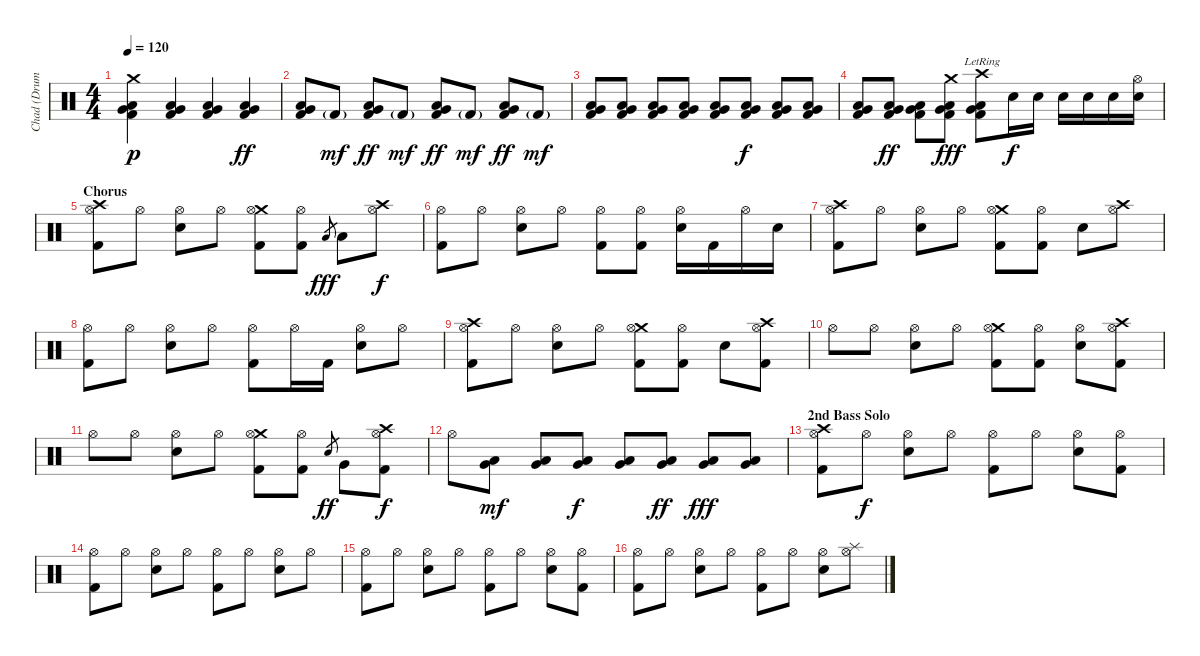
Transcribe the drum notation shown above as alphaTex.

\track ("Chad (Drums)" "Chad (Drum") {instrument percussion}
\staff {score}
\articulation defaults
\ts (4 4)
\tempo 120
\clef neutral
\ks c
("Crash medium (hit)" "Very Low Tom (hit)" "Low Floor Tom (hit)" "Kick (hit) 2").4{dy p} ("Very Low Tom (hit)" "Low Floor Tom (hit)" "Kick (hit) 2").4 ("Very Low Tom (hit)" "Low Floor Tom (hit)" "Kick (hit) 2").4 ("Very Low Tom (hit)" "Low Floor Tom (hit)" "Kick (hit) 2").4{dy ff} |
("Very Low Tom (hit)" "Low Floor Tom (hit)" "Kick (hit) 2").8 "Kick (hit) 2"{g}.8{dy mf} ("Very Low Tom (hit)" "Low Floor Tom (hit)" "Kick (hit) 2").8{dy ff} "Kick (hit) 2"{g}.8{dy mf} ("Very Low Tom (hit)" "Low Floor Tom (hit)" "Kick (hit) 2").8{dy ff} "Kick (hit) 2"{g}.8{dy mf} ("Very Low Tom (hit)" "Low Floor Tom (hit)" "Kick (hit) 2").8{dy ff} "Kick (hit) 2"{g}.8{dy mf} |
("Very Low Tom (hit)" "Low Floor Tom (hit)" "Kick (hit) 2").8 ("Very Low Tom (hit)" "Low Floor Tom (hit)" "Kick (hit) 2").8 ("Very Low Tom (hit)" "Low Floor Tom (hit)" "Kick (hit) 2").8 ("Very Low Tom (hit)" "Low Floor Tom (hit)" "Kick (hit) 2").8 ("Very Low Tom (hit)" "Low Floor Tom (hit)" "Kick (hit) 2").8 ("Very Low Tom (hit)" "Low Floor Tom (hit)" "Kick (hit) 2").8{dy f} ("Very Low Tom (hit)" "Low Floor Tom (hit)" "Kick (hit) 2").8 ("Very Low Tom (hit)" "Low Floor Tom (hit)" "Kick (hit) 2").8 |
("Very Low Tom (hit)" "Low Floor Tom (hit)" "Kick (hit) 2").8 ("Very Low Tom (hit)" "Low Floor Tom (hit)" "Kick (hit) 2").8{dy ff} ("Very Low Tom (hit)" "Low Floor Tom (hit)" "Kick (hit) 2").8 ("Crash medium (hit)" "Very Low Tom (hit)" "Low Floor Tom (hit)" "Kick (hit) 2").8{dy fff} ("Crash high (hit)"{lr} "Very Low Tom (hit)" "Low Floor Tom (hit)" "Kick (hit) 2").8 "Snare (hit) 2".16{dy f} "Snare (hit) 2".16 "Snare (hit) 2".16 "Snare (hit) 2".16 "Snare (hit) 2".16 ("Hi-Hat (open)" "Snare (hit) 2").16 |
\section ("" "Chorus")
("Crash high (hit)" "Hi-Hat (open)" "Kick (hit) 2").8 "Hi-Hat (open)".8 ("Hi-Hat (open)" "Snare (hit) 2").8 "Hi-Hat (open)".8 ("Crash medium (hit)" "Hi-Hat (open)" "Kick (hit) 2").8 ("Hi-Hat (open)" "Kick (hit) 2").8 "Low Floor Tom (hit)".8{gr dy fff} "Low Floor Tom (hit)".8 ("Crash high (hit)" "Hi-Hat (open)").8{dy f} |
("Hi-Hat (open)" "Kick (hit) 2").8 "Hi-Hat (open)".8 ("Hi-Hat (open)" "Snare (hit) 2").8 "Hi-Hat (open)".8 ("Hi-Hat (open)" "Kick (hit) 2").8 ("Hi-Hat (open)" "Kick (hit) 2").8 ("Hi-Hat (open)" "Snare (hit) 2").16 "Kick (hit) 2".16 "Hi-Hat (open)".16 "Snare (hit) 2".16 |
("Crash high (hit)" "Hi-Hat (open)" "Kick (hit) 2").8 "Hi-Hat (open)".8 ("Hi-Hat (open)" "Snare (hit) 2").8 "Hi-Hat (open)".8 ("Crash medium (hit)" "Hi-Hat (open)" "Kick (hit) 2").8 ("Hi-Hat (open)" "Kick (hit) 2").8 "Snare (hit) 2".8 ("Crash high (hit)" "Hi-Hat (open)").8 |
("Hi-Hat (open)" "Kick (hit) 2").8 "Hi-Hat (open)".8 ("Hi-Hat (open)" "Snare (hit) 2").8 "Hi-Hat (open)".8 ("Hi-Hat (open)" "Kick (hit) 2").8 "Hi-Hat (open)".16 "Kick (hit) 2".16 ("Hi-Hat (open)" "Snare (hit) 2").8 "Hi-Hat (open)".8 |
("Crash high (hit)" "Hi-Hat (open)" "Kick (hit) 2").8 "Hi-Hat (open)".8 ("Hi-Hat (open)" "Snare (hit) 2").8 "Hi-Hat (open)".8 ("Crash medium (hit)" "Hi-Hat (open)" "Kick (hit) 2").8 ("Hi-Hat (open)" "Kick (hit) 2").8 "Snare (hit) 2".8 ("Crash high (hit)" "Hi-Hat (open)" "Kick (hit) 2").8 |
"Hi-Hat (open)".8 "Hi-Hat (open)".8 ("Hi-Hat (open)" "Snare (hit) 2").8 "Hi-Hat (open)".8 ("Crash medium (hit)" "Hi-Hat (open)" "Kick (hit) 2").8 ("Hi-Hat (open)" "Kick (hit) 2").8 ("Hi-Hat (open)" "Snare (hit) 2").8 ("Crash high (hit)" "Hi-Hat (open)" "Kick (hit) 2").8 |
"Hi-Hat (open)".8 "Hi-Hat (open)".8 ("Hi-Hat (open)" "Snare (hit) 2").8 "Hi-Hat (open)".8 ("Crash medium (hit)" "Hi-Hat (open)" "Kick (hit) 2").8 ("Hi-Hat (open)" "Kick (hit) 2").8 "Snare (hit) 2".8{gr dy ff} "Very Low Tom (hit)".8 ("Crash high (hit)" "Hi-Hat (open)" "Kick (hit) 2").8{dy f} |
"Hi-Hat (open)".8 ("Low Floor Tom (hit)" "Very Low Tom (hit)").8{dy mf} ("Low Floor Tom (hit)" "Very Low Tom (hit)").8 ("Low Floor Tom (hit)" "Very Low Tom (hit)").8{dy f} ("Low Floor Tom (hit)" "Very Low Tom (hit)").8 ("Low Floor Tom (hit)" "Very Low Tom (hit)").8{dy ff} ("Low Floor Tom (hit)" "Very Low Tom (hit)").8{dy fff} ("Low Floor Tom (hit)" "Very Low Tom (hit)").8 |
\section ("" "2nd Bass Solo")
("Crash high (hit)" "Hi-Hat (open)" "Kick (hit) 2").8 "Hi-Hat (open)".8{dy f} ("Hi-Hat (open)" "Snare (hit) 2").8 "Hi-Hat (open)".8 ("Hi-Hat (open)" "Kick (hit) 2").8 "Hi-Hat (open)".8 ("Hi-Hat (open)" "Snare (hit) 2").8 ("Hi-Hat (open)" "Kick (hit) 2").8 |
("Hi-Hat (open)" "Kick (hit) 2").8 "Hi-Hat (open)".8 ("Hi-Hat (open)" "Snare (hit) 2").8 "Hi-Hat (open)".8 ("Hi-Hat (open)" "Kick (hit) 2").8 "Hi-Hat (open)".8 ("Hi-Hat (open)" "Snare (hit) 2").8 "Hi-Hat (open)".8 |
("Hi-Hat (open)" "Kick (hit) 2").8 "Hi-Hat (open)".8 ("Hi-Hat (open)" "Snare (hit) 2").8 "Hi-Hat (open)".8 ("Hi-Hat (open)" "Kick (hit) 2").8 "Hi-Hat (open)".8 ("Hi-Hat (open)" "Snare (hit) 2").8 ("Hi-Hat (open)" "Kick (hit) 2").8 |
("Hi-Hat (open)" "Kick (hit) 2").8 "Hi-Hat (open)".8 ("Hi-Hat (open)" "Snare (hit) 2").8 "Hi-Hat (open)".8 ("Hi-Hat (open)" "Kick (hit) 2").8 "Hi-Hat (open)".8 ("Hi-Hat (open)" "Snare (hit) 2").8 ("Splash (hit)" "Hi-Hat (open)").8
